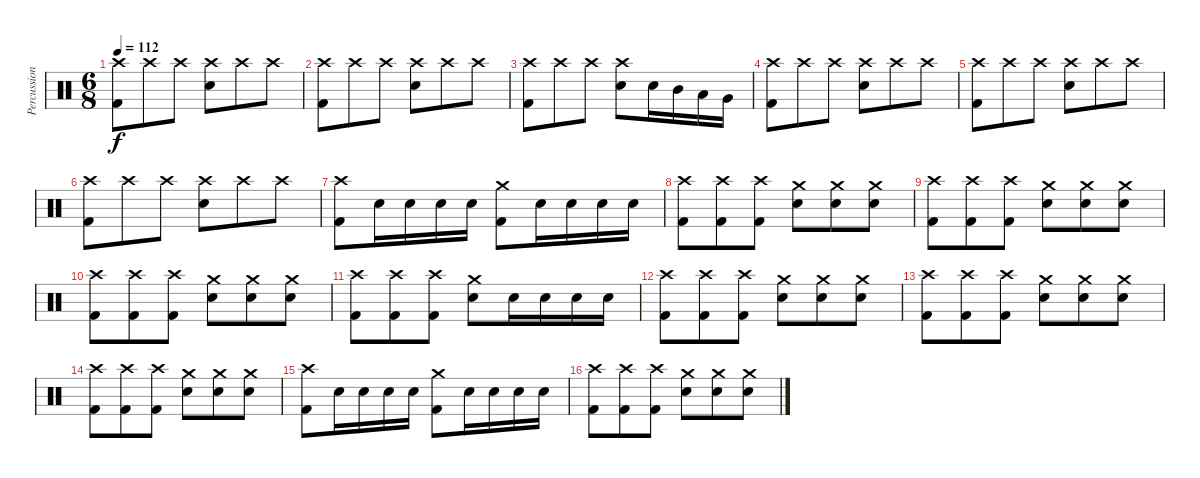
\track ("Percussion" "Percussion") {instrument percussion}
\staff {score}
\articulation defaults
\ts (6 8)
\tempo 112
\clef neutral
\ks c
("Crash high (hit)" "Kick (hit) 2").8{dy f} "Crash high (hit)".8 "Crash high (hit)".8 ("Crash high (hit)" "Electric Snare (hit)").8 "Crash high (hit)".8 "Crash high (hit)".8 |
("Crash high (hit)" "Kick (hit) 2").8 "Crash high (hit)".8 "Crash high (hit)".8 ("Crash high (hit)" "Electric Snare (hit)").8 "Crash high (hit)".8 "Crash high (hit)".8 |
("Crash high (hit)" "Kick (hit) 2").8 "Crash high (hit)".8 "Crash high (hit)".8 ("Crash high (hit)" "Electric Snare (hit)").8 "Electric Snare (hit)".16 "Mid Tom (hit)".16 "Low Tom (hit)".16 "Very Low Tom (hit)".16 |
("Crash high (hit)" "Kick (hit) 2").8 "Crash high (hit)".8 "Crash high (hit)".8 ("Crash high (hit)" "Electric Snare (hit)").8 "Crash high (hit)".8 "Crash high (hit)".8 |
("Crash high (hit)" "Kick (hit) 2").8 "Crash high (hit)".8 "Crash high (hit)".8 ("Crash high (hit)" "Electric Snare (hit)").8 "Crash high (hit)".8 "Crash high (hit)".8 |
("Crash high (hit)" "Kick (hit) 2").8 "Crash high (hit)".8 "Crash high (hit)".8 ("Crash high (hit)" "Electric Snare (hit)").8 "Crash high (hit)".8 "Crash high (hit)".8 |
("Crash high (hit)" "Kick (hit) 2").8 "Electric Snare (hit)".16 "Electric Snare (hit)".16 "Electric Snare (hit)".16 "Electric Snare (hit)".16 ("Crash medium (hit)" "Kick (hit) 2").8 "Electric Snare (hit)".16 "Electric Snare (hit)".16 "Electric Snare (hit)".16 "Electric Snare (hit)".16 |
("Crash high (hit)" "Kick (hit) 2").8 ("Crash high (hit)" "Kick (hit) 2").8 ("Crash high (hit)" "Kick (hit) 2").8 ("Crash medium (hit)" "Electric Snare (hit)").8 ("Crash medium (hit)" "Electric Snare (hit)").8 ("Crash medium (hit)" "Electric Snare (hit)").8 |
("Crash high (hit)" "Kick (hit) 2").8 ("Crash high (hit)" "Kick (hit) 2").8 ("Crash high (hit)" "Kick (hit) 2").8 ("Crash medium (hit)" "Electric Snare (hit)").8 ("Crash medium (hit)" "Electric Snare (hit)").8 ("Crash medium (hit)" "Electric Snare (hit)").8 |
("Crash high (hit)" "Kick (hit) 2").8 ("Crash high (hit)" "Kick (hit) 2").8 ("Crash high (hit)" "Kick (hit) 2").8 ("Crash medium (hit)" "Electric Snare (hit)").8 ("Crash medium (hit)" "Electric Snare (hit)").8 ("Crash medium (hit)" "Electric Snare (hit)").8 |
("Crash high (hit)" "Kick (hit) 2").8 ("Crash high (hit)" "Kick (hit) 2").8 ("Crash high (hit)" "Kick (hit) 2").8 ("Crash medium (hit)" "Electric Snare (hit)").8 "Electric Snare (hit)".16 "Electric Snare (hit)".16 "Electric Snare (hit)".16 "Electric Snare (hit)".16 |
("Crash high (hit)" "Kick (hit) 2").8 ("Crash high (hit)" "Kick (hit) 2").8 ("Crash high (hit)" "Kick (hit) 2").8 ("Crash medium (hit)" "Electric Snare (hit)").8 ("Crash medium (hit)" "Electric Snare (hit)").8 ("Crash medium (hit)" "Electric Snare (hit)").8 |
("Crash high (hit)" "Kick (hit) 2").8 ("Crash high (hit)" "Kick (hit) 2").8 ("Crash high (hit)" "Kick (hit) 2").8 ("Crash medium (hit)" "Electric Snare (hit)").8 ("Crash medium (hit)" "Electric Snare (hit)").8 ("Crash medium (hit)" "Electric Snare (hit)").8 |
("Crash high (hit)" "Kick (hit) 2").8 ("Crash high (hit)" "Kick (hit) 2").8 ("Crash high (hit)" "Kick (hit) 2").8 ("Crash medium (hit)" "Electric Snare (hit)").8 ("Crash medium (hit)" "Electric Snare (hit)").8 ("Crash medium (hit)" "Electric Snare (hit)").8 |
("Crash high (hit)" "Kick (hit) 2").8 "Electric Snare (hit)".16 "Electric Snare (hit)".16 "Electric Snare (hit)".16 "Electric Snare (hit)".16 ("Crash medium (hit)" "Kick (hit) 2").8 "Electric Snare (hit)".16 "Electric Snare (hit)".16 "Electric Snare (hit)".16 "Electric Snare (hit)".16 |
("Crash high (hit)" "Kick (hit) 2").8 ("Crash high (hit)" "Kick (hit) 2").8 ("Crash high (hit)" "Kick (hit) 2").8 ("Crash medium (hit)" "Electric Snare (hit)").8 ("Crash medium (hit)" "Electric Snare (hit)").8 ("Crash medium (hit)" "Electric Snare (hit)").8
